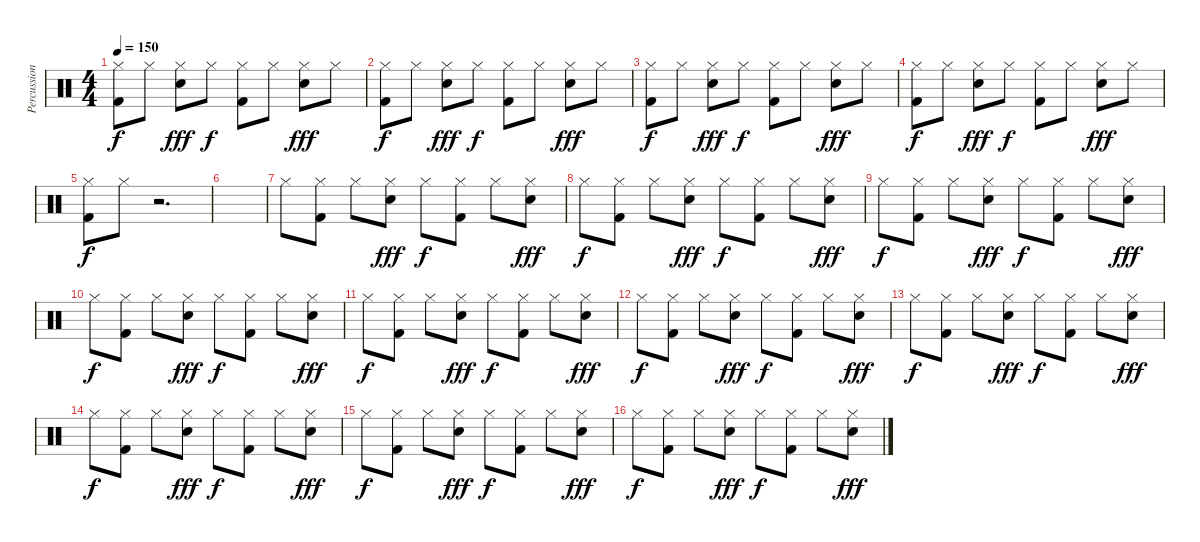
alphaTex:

\track ("Percussion" "Percussion") {instrument percussion}
\staff {score}
\articulation defaults
\ts (4 4)
\tempo 150
\clef neutral
\ks c
("Hi-Hat (closed)" "Kick (hit) 2").8{dy f} "Hi-Hat (closed)".8 ("Hi-Hat (closed)" "Electric Snare (hit)").8{dy fff} "Hi-Hat (closed)".8{dy f} ("Hi-Hat (closed)" "Kick (hit) 2").8 "Hi-Hat (closed)".8 ("Hi-Hat (closed)" "Electric Snare (hit)").8{dy fff} "Hi-Hat (closed)".8 |
("Hi-Hat (closed)" "Kick (hit) 2").8{dy f} "Hi-Hat (closed)".8 ("Hi-Hat (closed)" "Electric Snare (hit)").8{dy fff} "Hi-Hat (closed)".8{dy f} ("Hi-Hat (closed)" "Kick (hit) 2").8 "Hi-Hat (closed)".8 ("Hi-Hat (closed)" "Electric Snare (hit)").8{dy fff} "Hi-Hat (closed)".8 |
("Hi-Hat (closed)" "Kick (hit) 2").8{dy f} "Hi-Hat (closed)".8 ("Hi-Hat (closed)" "Electric Snare (hit)").8{dy fff} "Hi-Hat (closed)".8{dy f} ("Hi-Hat (closed)" "Kick (hit) 2").8 "Hi-Hat (closed)".8 ("Hi-Hat (closed)" "Electric Snare (hit)").8{dy fff} "Hi-Hat (closed)".8 |
("Hi-Hat (closed)" "Kick (hit) 2").8{dy f} "Hi-Hat (closed)".8 ("Hi-Hat (closed)" "Electric Snare (hit)").8{dy fff} "Hi-Hat (closed)".8{dy f} ("Hi-Hat (closed)" "Kick (hit) 2").8 "Hi-Hat (closed)".8 ("Hi-Hat (closed)" "Electric Snare (hit)").8{dy fff} "Hi-Hat (closed)".8 |
("Hi-Hat (closed)" "Kick (hit) 2").8{dy f} "Hi-Hat (closed)".8 r.2{d} |
|
"Hi-Hat (closed)".8 ("Hi-Hat (closed)" "Kick (hit) 2").8 "Hi-Hat (closed)".8 ("Hi-Hat (closed)" "Electric Snare (hit)").8{dy fff} "Hi-Hat (closed)".8{dy f} ("Hi-Hat (closed)" "Kick (hit) 2").8 "Hi-Hat (closed)".8 ("Hi-Hat (closed)" "Electric Snare (hit)").8{dy fff} |
"Hi-Hat (closed)".8{dy f} ("Hi-Hat (closed)" "Kick (hit) 2").8 "Hi-Hat (closed)".8 ("Hi-Hat (closed)" "Electric Snare (hit)").8{dy fff} "Hi-Hat (closed)".8{dy f} ("Hi-Hat (closed)" "Kick (hit) 2").8 "Hi-Hat (closed)".8 ("Hi-Hat (closed)" "Electric Snare (hit)").8{dy fff} |
"Hi-Hat (closed)".8{dy f} ("Hi-Hat (closed)" "Kick (hit) 2").8 "Hi-Hat (closed)".8 ("Hi-Hat (closed)" "Electric Snare (hit)").8{dy fff} "Hi-Hat (closed)".8{dy f} ("Hi-Hat (closed)" "Kick (hit) 2").8 "Hi-Hat (closed)".8 ("Hi-Hat (closed)" "Electric Snare (hit)").8{dy fff} |
"Hi-Hat (closed)".8{dy f} ("Hi-Hat (closed)" "Kick (hit) 2").8 "Hi-Hat (closed)".8 ("Hi-Hat (closed)" "Electric Snare (hit)").8{dy fff} "Hi-Hat (closed)".8{dy f} ("Hi-Hat (closed)" "Kick (hit) 2").8 "Hi-Hat (closed)".8 ("Hi-Hat (closed)" "Electric Snare (hit)").8{dy fff} |
"Hi-Hat (closed)".8{dy f} ("Hi-Hat (closed)" "Kick (hit) 2").8 "Hi-Hat (closed)".8 ("Hi-Hat (closed)" "Electric Snare (hit)").8{dy fff} "Hi-Hat (closed)".8{dy f} ("Hi-Hat (closed)" "Kick (hit) 2").8 "Hi-Hat (closed)".8 ("Hi-Hat (closed)" "Electric Snare (hit)").8{dy fff} |
"Hi-Hat (closed)".8{dy f} ("Hi-Hat (closed)" "Kick (hit) 2").8 "Hi-Hat (closed)".8 ("Hi-Hat (closed)" "Electric Snare (hit)").8{dy fff} "Hi-Hat (closed)".8{dy f} ("Hi-Hat (closed)" "Kick (hit) 2").8 "Hi-Hat (closed)".8 ("Hi-Hat (closed)" "Electric Snare (hit)").8{dy fff} |
"Hi-Hat (closed)".8{dy f} ("Hi-Hat (closed)" "Kick (hit) 2").8 "Hi-Hat (closed)".8 ("Hi-Hat (closed)" "Electric Snare (hit)").8{dy fff} "Hi-Hat (closed)".8{dy f} ("Hi-Hat (closed)" "Kick (hit) 2").8 "Hi-Hat (closed)".8 ("Hi-Hat (closed)" "Electric Snare (hit)").8{dy fff} |
"Hi-Hat (closed)".8{dy f} ("Hi-Hat (closed)" "Kick (hit) 2").8 "Hi-Hat (closed)".8 ("Hi-Hat (closed)" "Electric Snare (hit)").8{dy fff} "Hi-Hat (closed)".8{dy f} ("Hi-Hat (closed)" "Kick (hit) 2").8 "Hi-Hat (closed)".8 ("Hi-Hat (closed)" "Electric Snare (hit)").8{dy fff} |
"Hi-Hat (closed)".8{dy f} ("Hi-Hat (closed)" "Kick (hit) 2").8 "Hi-Hat (closed)".8 ("Hi-Hat (closed)" "Electric Snare (hit)").8{dy fff} "Hi-Hat (closed)".8{dy f} ("Hi-Hat (closed)" "Kick (hit) 2").8 "Hi-Hat (closed)".8 ("Hi-Hat (closed)" "Electric Snare (hit)").8{dy fff} |
"Hi-Hat (closed)".8{dy f} ("Hi-Hat (closed)" "Kick (hit) 2").8 "Hi-Hat (closed)".8 ("Hi-Hat (closed)" "Electric Snare (hit)").8{dy fff} "Hi-Hat (closed)".8{dy f} ("Hi-Hat (closed)" "Kick (hit) 2").8 "Hi-Hat (closed)".8 ("Hi-Hat (closed)" "Electric Snare (hit)").8{dy fff}
